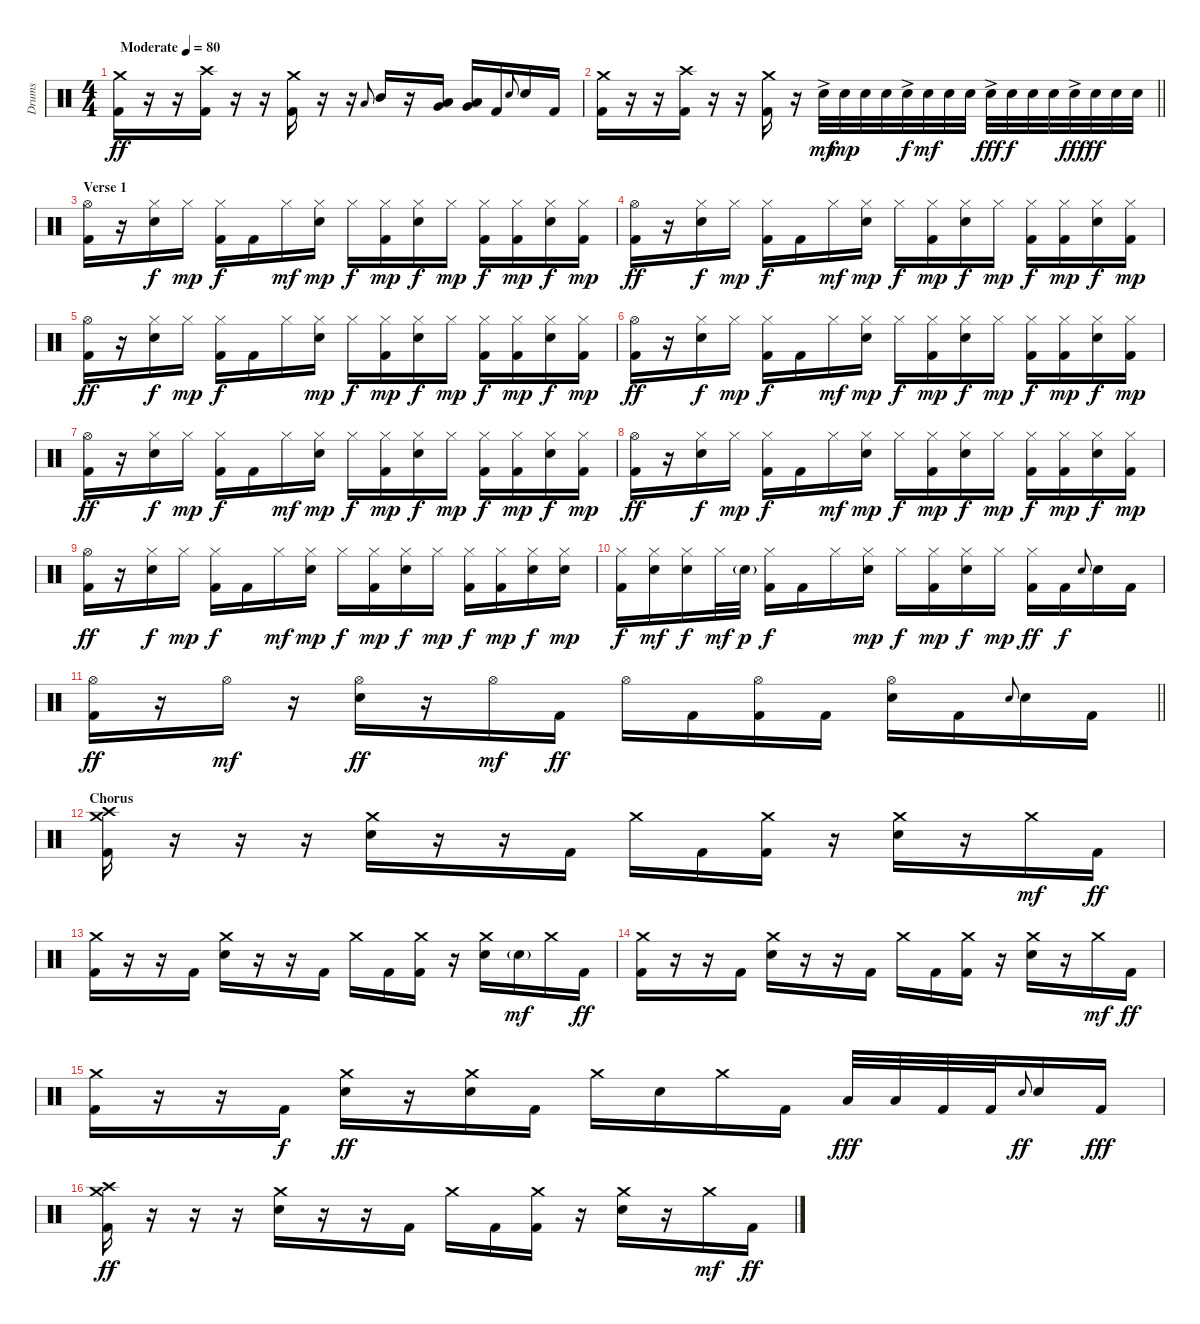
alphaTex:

\track ("Drums" "Drums") {instrument percussion}
\staff {score}
\articulation defaults
\ts (4 4)
\tempo (80 "Moderate")
\clef neutral
\ks c
("Crash medium (hit)" "Kick (hit) 2").16{dy ff} r.16 r.16 ("Crash high (hit)" "Kick (hit) 2").16 r.16 r.16 ("Crash medium (hit)" "Kick (hit) 2").16 r.16 r.16 "Low Tom (hit)".8{gr onbeat} "Mid Tom (hit)".16 r.16 ("Very Low Tom (hit)" "Low Floor Tom (hit)").16 ("Very Low Tom (hit)" "Low Floor Tom (hit)").16 "Kick (hit) 2".16 "Electric Snare (hit)".8{gr onbeat} "Electric Snare (hit)".16 "Kick (hit) 2".16 |
\barLineRight lightlight
("Crash medium (hit)" "Kick (hit) 2").16 r.16 r.16 ("Crash high (hit)" "Kick (hit) 2").16 r.16 r.16 ("Crash medium (hit)" "Kick (hit) 2").16 r.16 "Electric Snare (hit)"{ac}.32{dy mf} "Electric Snare (hit)".32{dy mp} "Electric Snare (hit)".32 "Electric Snare (hit)".32 "Electric Snare (hit)"{ac}.32{dy f} "Electric Snare (hit)".32{dy mf} "Electric Snare (hit)".32 "Electric Snare (hit)".32 "Electric Snare (hit)"{ac}.32{dy fff} "Electric Snare (hit)".32{dy f} "Electric Snare (hit)".32 "Electric Snare (hit)".32 "Electric Snare (hit)"{ac}.32{dy fff} "Electric Snare (hit)".32{dy ff} "Electric Snare (hit)".32 "Electric Snare (hit)".32 |
\section ("" "Verse 1")
("Hi-Hat (open)" "Kick (hit) 2").16 r.16 ("Hi-Hat (closed)" "Electric Snare (hit)").16{dy f} "Hi-Hat (closed)".16{dy mp} ("Hi-Hat (closed)" "Kick (hit) 2").16{dy f} "Kick (hit) 2".16 "Hi-Hat (closed)".16{dy mf} ("Hi-Hat (closed)" "Electric Snare (hit)").16{dy mp} "Hi-Hat (closed)".16{dy f} ("Hi-Hat (closed)" "Kick (hit) 2").16{dy mp} ("Hi-Hat (closed)" "Electric Snare (hit)").16{dy f} "Hi-Hat (closed)".16{dy mp} ("Hi-Hat (closed)" "Kick (hit) 2").16{dy f} ("Hi-Hat (closed)" "Kick (hit) 2").16{dy mp} ("Hi-Hat (closed)" "Electric Snare (hit)").16{dy f} ("Hi-Hat (closed)" "Kick (hit) 2").16{dy mp} |
("Hi-Hat (open)" "Kick (hit) 2").16{dy ff} r.16 ("Hi-Hat (closed)" "Electric Snare (hit)").16{dy f} "Hi-Hat (closed)".16{dy mp} ("Hi-Hat (closed)" "Kick (hit) 2").16{dy f} "Kick (hit) 2".16 "Hi-Hat (closed)".16{dy mf} ("Hi-Hat (closed)" "Electric Snare (hit)").16{dy mp} "Hi-Hat (closed)".16{dy f} ("Hi-Hat (closed)" "Kick (hit) 2").16{dy mp} ("Hi-Hat (closed)" "Electric Snare (hit)").16{dy f} "Hi-Hat (closed)".16{dy mp} ("Hi-Hat (closed)" "Kick (hit) 2").16{dy f} ("Hi-Hat (closed)" "Kick (hit) 2").16{dy mp} ("Hi-Hat (closed)" "Electric Snare (hit)").16{dy f} ("Hi-Hat (closed)" "Kick (hit) 2").16{dy mp} |
("Hi-Hat (open)" "Kick (hit) 2").16{dy ff} r.16 ("Hi-Hat (closed)" "Electric Snare (hit)").16{dy f} "Hi-Hat (closed)".16{dy mp} ("Hi-Hat (closed)" "Kick (hit) 2").16{dy f} "Kick (hit) 2".16 "Hi-Hat (closed)".16 ("Hi-Hat (closed)" "Electric Snare (hit)").16{dy mp} "Hi-Hat (closed)".16{dy f} ("Hi-Hat (closed)" "Kick (hit) 2").16{dy mp} ("Hi-Hat (closed)" "Electric Snare (hit)").16{dy f} "Hi-Hat (closed)".16{dy mp} ("Hi-Hat (closed)" "Kick (hit) 2").16{dy f} ("Hi-Hat (closed)" "Kick (hit) 2").16{dy mp} ("Hi-Hat (closed)" "Electric Snare (hit)").16{dy f} ("Hi-Hat (closed)" "Kick (hit) 2").16{dy mp} |
("Hi-Hat (open)" "Kick (hit) 2").16{dy ff} r.16 ("Hi-Hat (closed)" "Electric Snare (hit)").16{dy f} "Hi-Hat (closed)".16{dy mp} ("Hi-Hat (closed)" "Kick (hit) 2").16{dy f} "Kick (hit) 2".16 "Hi-Hat (closed)".16{dy mf} ("Hi-Hat (closed)" "Electric Snare (hit)").16{dy mp} "Hi-Hat (closed)".16{dy f} ("Hi-Hat (closed)" "Kick (hit) 2").16{dy mp} ("Hi-Hat (closed)" "Electric Snare (hit)").16{dy f} "Hi-Hat (closed)".16{dy mp} ("Hi-Hat (closed)" "Kick (hit) 2").16{dy f} ("Hi-Hat (closed)" "Kick (hit) 2").16{dy mp} ("Hi-Hat (closed)" "Electric Snare (hit)").16{dy f} ("Hi-Hat (closed)" "Kick (hit) 2").16{dy mp} |
("Hi-Hat (open)" "Kick (hit) 2").16{dy ff} r.16 ("Hi-Hat (closed)" "Electric Snare (hit)").16{dy f} "Hi-Hat (closed)".16{dy mp} ("Hi-Hat (closed)" "Kick (hit) 2").16{dy f} "Kick (hit) 2".16 "Hi-Hat (closed)".16{dy mf} ("Hi-Hat (closed)" "Electric Snare (hit)").16{dy mp} "Hi-Hat (closed)".16{dy f} ("Hi-Hat (closed)" "Kick (hit) 2").16{dy mp} ("Hi-Hat (closed)" "Electric Snare (hit)").16{dy f} "Hi-Hat (closed)".16{dy mp} ("Hi-Hat (closed)" "Kick (hit) 2").16{dy f} ("Hi-Hat (closed)" "Kick (hit) 2").16{dy mp} ("Hi-Hat (closed)" "Electric Snare (hit)").16{dy f} ("Hi-Hat (closed)" "Kick (hit) 2").16{dy mp} |
("Hi-Hat (open)" "Kick (hit) 2").16{dy ff} r.16 ("Hi-Hat (closed)" "Electric Snare (hit)").16{dy f} "Hi-Hat (closed)".16{dy mp} ("Hi-Hat (closed)" "Kick (hit) 2").16{dy f} "Kick (hit) 2".16 "Hi-Hat (closed)".16{dy mf} ("Hi-Hat (closed)" "Electric Snare (hit)").16{dy mp} "Hi-Hat (closed)".16{dy f} ("Hi-Hat (closed)" "Kick (hit) 2").16{dy mp} ("Hi-Hat (closed)" "Electric Snare (hit)").16{dy f} "Hi-Hat (closed)".16{dy mp} ("Hi-Hat (closed)" "Kick (hit) 2").16{dy f} ("Hi-Hat (closed)" "Kick (hit) 2").16{dy mp} ("Hi-Hat (closed)" "Electric Snare (hit)").16{dy f} ("Hi-Hat (closed)" "Kick (hit) 2").16{dy mp} |
("Hi-Hat (open)" "Kick (hit) 2").16{dy ff} r.16 ("Hi-Hat (closed)" "Electric Snare (hit)").16{dy f} "Hi-Hat (closed)".16{dy mp} ("Hi-Hat (closed)" "Kick (hit) 2").16{dy f} "Kick (hit) 2".16 "Hi-Hat (closed)".16{dy mf} ("Hi-Hat (closed)" "Electric Snare (hit)").16{dy mp} "Hi-Hat (closed)".16{dy f} ("Hi-Hat (closed)" "Kick (hit) 2").16{dy mp} ("Hi-Hat (closed)" "Electric Snare (hit)").16{dy f} "Hi-Hat (closed)".16{dy mp} ("Hi-Hat (closed)" "Kick (hit) 2").16{dy f} ("Hi-Hat (closed)" "Kick (hit) 2").16{dy mp} ("Hi-Hat (closed)" "Electric Snare (hit)").16{dy f} ("Hi-Hat (closed)" "Electric Snare (hit)").16{dy mp} |
("Hi-Hat (closed)" "Kick (hit) 2").16{dy f} ("Hi-Hat (closed)" "Electric Snare (hit)").16{dy mf} ("Hi-Hat (closed)" "Electric Snare (hit)").16{dy f} "Hi-Hat (closed)".32{dy mf} "Electric Snare (hit)"{g}.32{dy p} ("Hi-Hat (closed)" "Kick (hit) 2").16{dy f} "Kick (hit) 2".16 "Hi-Hat (closed)".16 ("Hi-Hat (closed)" "Electric Snare (hit)").16{dy mp} "Hi-Hat (closed)".16{dy f} ("Hi-Hat (closed)" "Kick (hit) 2").16{dy mp} ("Hi-Hat (closed)" "Electric Snare (hit)").16{dy f} "Hi-Hat (closed)".16{dy mp} ("Hi-Hat (closed)" "Kick (hit) 2").16{dy ff} "Kick (hit) 2".16{dy f} "Electric Snare (hit)".8{gr onbeat} "Electric Snare (hit)".16 "Kick (hit) 2".16 |
\barLineRight lightlight
("Hi-Hat (open)" "Kick (hit) 2").16{dy ff} r.16 "Hi-Hat (open)".16{dy mf} r.16 ("Hi-Hat (open)" "Electric Snare (hit)").16{dy ff} r.16 "Hi-Hat (open)".16{dy mf} "Kick (hit) 2".16{dy ff} "Hi-Hat (open)".16 "Kick (hit) 2".16 ("Hi-Hat (open)" "Kick (hit) 2").16 "Kick (hit) 2".16 ("Hi-Hat (open)" "Electric Snare (hit)").16 "Kick (hit) 2".16 "Electric Snare (hit)".8{gr onbeat} "Electric Snare (hit)".16 "Kick (hit) 2".16 |
\section ("" "Chorus")
("Crash medium (hit)" "Crash high (hit)" "Kick (hit) 2").16 r.16 r.16 r.16 ("Crash medium (hit)" "Electric Snare (hit)").16 r.16 r.16 "Kick (hit) 2".16 "Crash medium (hit)".16 "Kick (hit) 2".16 ("Crash medium (hit)" "Kick (hit) 2").16 r.16 ("Crash medium (hit)" "Electric Snare (hit)").16 r.16 "Crash medium (hit)".16{dy mf} "Kick (hit) 2".16{dy ff} |
("Crash medium (hit)" "Kick (hit) 2").16 r.16 r.16 "Kick (hit) 2".16 ("Crash medium (hit)" "Electric Snare (hit)").16 r.16 r.16 "Kick (hit) 2".16 "Crash medium (hit)".16 "Kick (hit) 2".16 ("Crash medium (hit)" "Kick (hit) 2").16 r.16 ("Crash medium (hit)" "Electric Snare (hit)").16 "Electric Snare (hit)"{g}.16{dy mf} "Crash medium (hit)".16 "Kick (hit) 2".16{dy ff} |
("Crash medium (hit)" "Kick (hit) 2").16 r.16 r.16 "Kick (hit) 2".16 ("Crash medium (hit)" "Electric Snare (hit)").16 r.16 r.16 "Kick (hit) 2".16 "Crash medium (hit)".16 "Kick (hit) 2".16 ("Crash medium (hit)" "Kick (hit) 2").16 r.16 ("Crash medium (hit)" "Electric Snare (hit)").16 r.16 "Crash medium (hit)".16{dy mf} "Kick (hit) 2".16{dy ff} |
("Crash medium (hit)" "Kick (hit) 2").16 r.16 r.16 "Kick (hit) 2".16{dy f} ("Crash medium (hit)" "Electric Snare (hit)").16{dy ff} r.16 ("Crash medium (hit)" "Electric Snare (hit)").16 "Kick (hit) 2".16 "Crash medium (hit)".16 "Electric Snare (hit)".16 "Crash medium (hit)".16 "Kick (hit) 2".16 "Low Tom (hit)".32{dy fff} "Low Tom (hit)".32 "Kick (hit) 2".32 "Kick (hit) 2".32 "Electric Snare (hit)".8{gr onbeat dy ff} "Electric Snare (hit)".16 "Kick (hit) 2".16{dy fff} |
("Crash medium (hit)" "Crash high (hit)" "Kick (hit) 2").16{dy ff} r.16 r.16 r.16 ("Crash medium (hit)" "Electric Snare (hit)").16 r.16 r.16 "Kick (hit) 2".16 "Crash medium (hit)".16 "Kick (hit) 2".16 ("Crash medium (hit)" "Kick (hit) 2").16 r.16 ("Crash medium (hit)" "Electric Snare (hit)").16 r.16 "Crash medium (hit)".16{dy mf} "Kick (hit) 2".16{dy ff}
